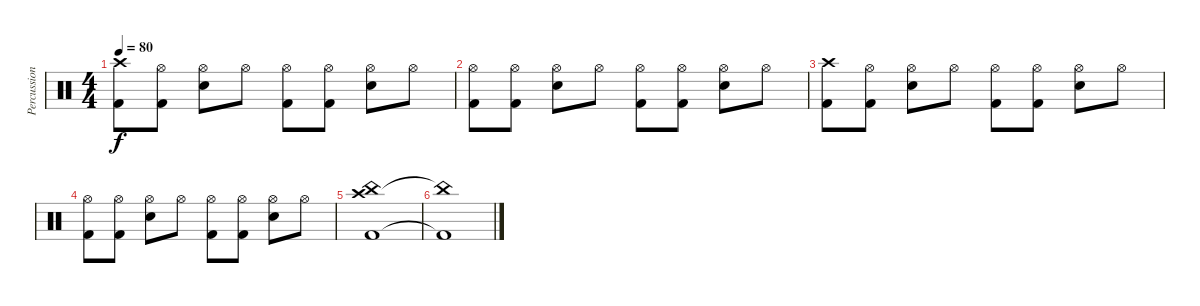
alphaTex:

\track ("Percussion" "Percussion") {instrument percussion}
\staff {score}
\articulation defaults
\ts (4 4)
\tempo 80
\clef neutral
\ks c
("Crash high (hit)" "Kick (hit) 2").8{dy f} ("Kick (hit) 2" "Hi-Hat (open)").8 ("Electric Snare (hit)" "Hi-Hat (open)").8 "Hi-Hat (open)".8 ("Hi-Hat (open)" "Kick (hit) 2").8 ("Hi-Hat (open)" "Kick (hit) 2").8 ("Electric Snare (hit)" "Hi-Hat (open)").8 "Hi-Hat (open)".8 |
("Hi-Hat (open)" "Kick (hit) 2").8 ("Kick (hit) 2" "Hi-Hat (open)").8 ("Electric Snare (hit)" "Hi-Hat (open)").8 "Hi-Hat (open)".8 ("Hi-Hat (open)" "Kick (hit) 2").8 ("Hi-Hat (open)" "Kick (hit) 2").8 ("Electric Snare (hit)" "Hi-Hat (open)").8 "Hi-Hat (open)".8 |
("Crash high (hit)" "Kick (hit) 2").8 ("Kick (hit) 2" "Hi-Hat (open)").8 ("Electric Snare (hit)" "Hi-Hat (open)").8 "Hi-Hat (open)".8 ("Hi-Hat (open)" "Kick (hit) 2").8 ("Hi-Hat (open)" "Kick (hit) 2").8 ("Electric Snare (hit)" "Hi-Hat (open)").8 "Hi-Hat (open)".8 |
("Hi-Hat (open)" "Kick (hit) 2").8 ("Kick (hit) 2" "Hi-Hat (open)").8 ("Electric Snare (hit)" "Hi-Hat (open)").8 "Hi-Hat (open)".8 ("Hi-Hat (open)" "Kick (hit) 2").8 ("Hi-Hat (open)" "Kick (hit) 2").8 ("Electric Snare (hit)" "Hi-Hat (open)").8 "Hi-Hat (open)".8 |
("Kick (hit) 2" "Crash high (hit)" "China (hit)").1 |
("Kick (hit) 2"{t} "China (hit)"{t}).1
